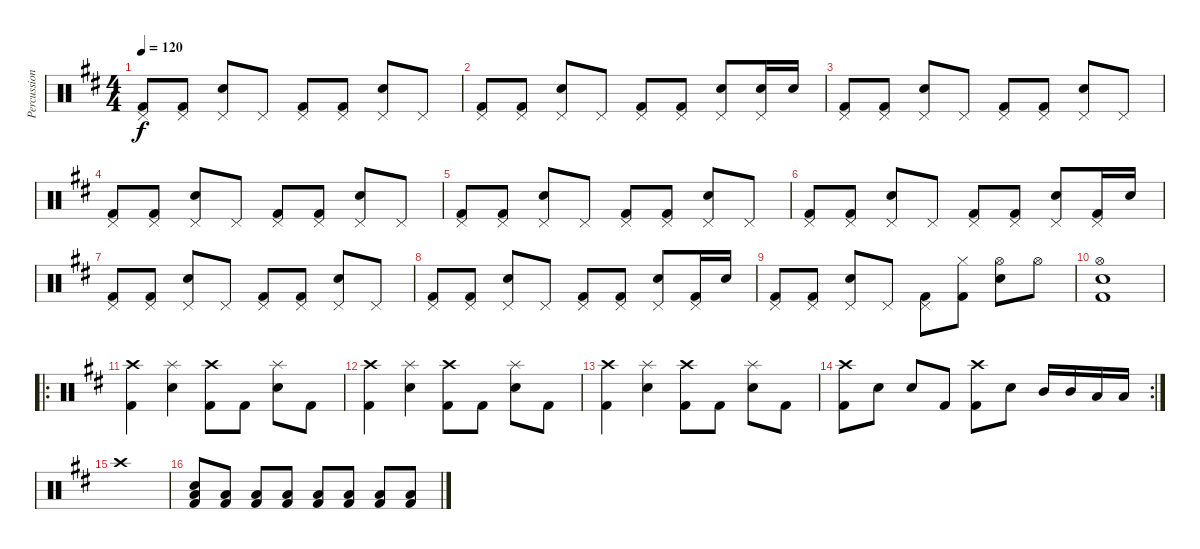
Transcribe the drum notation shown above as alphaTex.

\track ("Percussion" "Percussion") {instrument percussion}
\staff {score}
\articulation defaults
\ts (4 4)
\tempo 120
\clef neutral
\ks d
("Pedal Hi-Hat (hit)" "Kick (hit) 2").8{dy f} ("Pedal Hi-Hat (hit)" "Kick (hit) 2").8 ("Pedal Hi-Hat (hit)" "Snare (hit) 2").8 "Pedal Hi-Hat (hit)".8 ("Pedal Hi-Hat (hit)" "Kick (hit) 2").8 ("Pedal Hi-Hat (hit)" "Kick (hit) 2").8 ("Pedal Hi-Hat (hit)" "Snare (hit) 2").8 "Pedal Hi-Hat (hit)".8 |
("Pedal Hi-Hat (hit)" "Kick (hit) 2").8 ("Pedal Hi-Hat (hit)" "Kick (hit) 2").8 ("Pedal Hi-Hat (hit)" "Snare (hit) 2").8 "Pedal Hi-Hat (hit)".8 ("Pedal Hi-Hat (hit)" "Kick (hit) 2").8 ("Pedal Hi-Hat (hit)" "Kick (hit) 2").8 ("Pedal Hi-Hat (hit)" "Snare (hit) 2").8 ("Pedal Hi-Hat (hit)" "Snare (hit) 2").16 "Snare (hit) 2".16 |
("Pedal Hi-Hat (hit)" "Kick (hit) 2").8 ("Pedal Hi-Hat (hit)" "Kick (hit) 2").8 ("Pedal Hi-Hat (hit)" "Snare (hit) 2").8 "Pedal Hi-Hat (hit)".8 ("Pedal Hi-Hat (hit)" "Kick (hit) 2").8 ("Pedal Hi-Hat (hit)" "Kick (hit) 2").8 ("Pedal Hi-Hat (hit)" "Snare (hit) 2").8 "Pedal Hi-Hat (hit)".8 |
("Pedal Hi-Hat (hit)" "Kick (hit) 2").8 ("Pedal Hi-Hat (hit)" "Kick (hit) 2").8 ("Pedal Hi-Hat (hit)" "Snare (hit) 2").8 "Pedal Hi-Hat (hit)".8 ("Pedal Hi-Hat (hit)" "Kick (hit) 2").8 ("Pedal Hi-Hat (hit)" "Kick (hit) 2").8 ("Pedal Hi-Hat (hit)" "Snare (hit) 2").8 "Pedal Hi-Hat (hit)".8 |
("Pedal Hi-Hat (hit)" "Kick (hit) 2").8 ("Pedal Hi-Hat (hit)" "Kick (hit) 2").8 ("Pedal Hi-Hat (hit)" "Snare (hit) 2").8 "Pedal Hi-Hat (hit)".8 ("Pedal Hi-Hat (hit)" "Kick (hit) 2").8 ("Pedal Hi-Hat (hit)" "Kick (hit) 2").8 ("Pedal Hi-Hat (hit)" "Snare (hit) 2").8 "Pedal Hi-Hat (hit)".8 |
("Pedal Hi-Hat (hit)" "Kick (hit) 2").8 ("Pedal Hi-Hat (hit)" "Kick (hit) 2").8 ("Pedal Hi-Hat (hit)" "Snare (hit) 2").8 "Pedal Hi-Hat (hit)".8 ("Pedal Hi-Hat (hit)" "Kick (hit) 2").8 ("Pedal Hi-Hat (hit)" "Kick (hit) 2").8 ("Pedal Hi-Hat (hit)" "Snare (hit) 2").8 ("Pedal Hi-Hat (hit)" "Kick (hit) 2").16 "Snare (hit) 2".16 |
("Pedal Hi-Hat (hit)" "Kick (hit) 2").8 ("Pedal Hi-Hat (hit)" "Kick (hit) 2").8 ("Pedal Hi-Hat (hit)" "Snare (hit) 2").8 "Pedal Hi-Hat (hit)".8 ("Pedal Hi-Hat (hit)" "Kick (hit) 2").8 ("Pedal Hi-Hat (hit)" "Kick (hit) 2").8 ("Pedal Hi-Hat (hit)" "Snare (hit) 2").8 "Pedal Hi-Hat (hit)".8 |
("Pedal Hi-Hat (hit)" "Kick (hit) 2").8 ("Pedal Hi-Hat (hit)" "Kick (hit) 2").8 ("Pedal Hi-Hat (hit)" "Snare (hit) 2").8 "Pedal Hi-Hat (hit)".8 ("Pedal Hi-Hat (hit)" "Kick (hit) 2").8 ("Pedal Hi-Hat (hit)" "Kick (hit) 2").8 ("Pedal Hi-Hat (hit)" "Snare (hit) 2").8 ("Pedal Hi-Hat (hit)" "Kick (hit) 2").16 "Snare (hit) 2".16 |
("Pedal Hi-Hat (hit)" "Kick (hit) 2").8 ("Pedal Hi-Hat (hit)" "Kick (hit) 2").8 ("Pedal Hi-Hat (hit)" "Snare (hit) 2").8 "Pedal Hi-Hat (hit)".8 ("Pedal Hi-Hat (hit)" "Kick (hit) 2").8 ("Hi-Hat (closed)" "Kick (hit) 2").8 ("Hi-Hat (open)" "Snare (hit) 2").8 "Hi-Hat (open)".8 |
("Hi-Hat (open)" "Snare (hit) 2" "Kick (hit) 2").1 |
\ro
("Crash high (hit)" "Kick (hit) 2").4 ("Splash (hit)" "Snare (hit) 2").4 ("Crash high (hit)" "Kick (hit) 2").8 "Kick (hit) 2".8 ("Splash (hit)" "Snare (hit) 2").8 "Kick (hit) 2".8 |
("Crash high (hit)" "Kick (hit) 2").4 ("Splash (hit)" "Snare (hit) 2").4 ("Crash high (hit)" "Kick (hit) 2").8 "Kick (hit) 2".8 ("Splash (hit)" "Snare (hit) 2").8 "Kick (hit) 2".8 |
("Crash high (hit)" "Kick (hit) 2").4 ("Splash (hit)" "Snare (hit) 2").4 ("Crash high (hit)" "Kick (hit) 2").8 "Kick (hit) 2".8 ("Splash (hit)" "Snare (hit) 2").8 "Kick (hit) 2".8 |
\rc 2
("Crash high (hit)" "Kick (hit) 2").8 "Snare (hit) 2".8 "Snare (hit) 2".8 "Kick (hit) 2".8 ("Crash high (hit)" "Kick (hit) 2").8 "Snare (hit) 2".8 "Mid Tom (hit)".16 "Mid Tom (hit)".16 "Low Tom (hit)".16 "Low Tom (hit)".16 |
"Crash high (hit)".1 |
("Low Floor Tom (hit)" "Snare (hit) 2" "Kick (hit) 2").8 ("Low Floor Tom (hit)" "Kick (hit) 2").8 ("Low Floor Tom (hit)" "Kick (hit) 2").8 ("Low Floor Tom (hit)" "Kick (hit) 2").8 ("Low Floor Tom (hit)" "Kick (hit) 2").8 ("Low Floor Tom (hit)" "Kick (hit) 2").8 ("Low Floor Tom (hit)" "Kick (hit) 2").8 ("Low Floor Tom (hit)" "Kick (hit) 2").8
